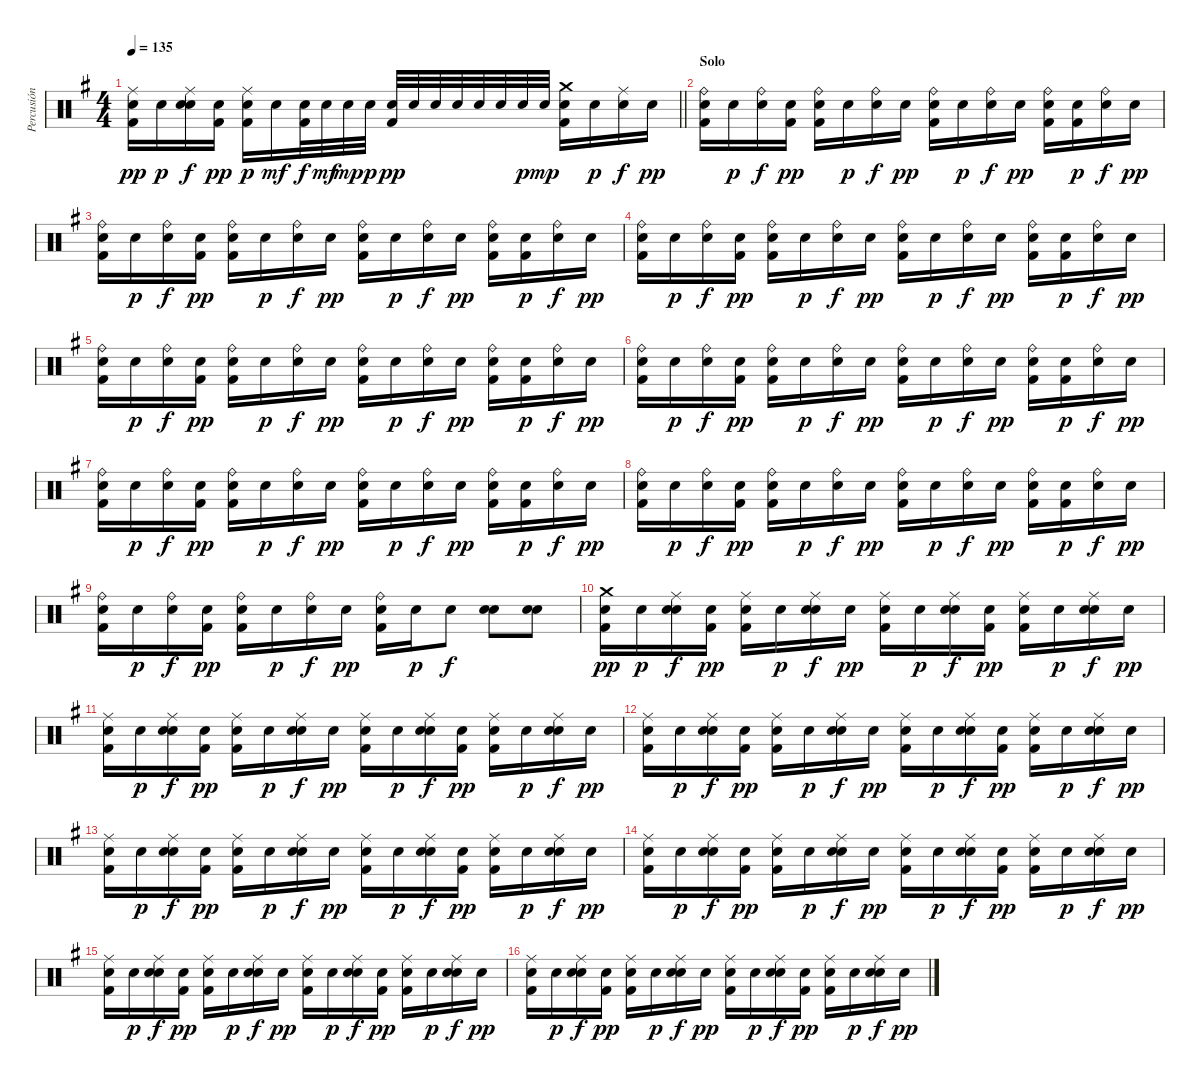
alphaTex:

\track ("Percusión" "Percusión") {instrument percussion}
\staff {score}
\articulation defaults
\ts (4 4)
\tempo 135
\clef neutral
\barLineRight lightlight
\ks g
("Ride (middle)" "Snare (hit) 2" "Kick (hit) 2").16{dy pp} "Snare (hit) 2".16{dy p} ("Ride (middle)" "Hand Clap (hit)" "Snare (hit) 2").16{dy f} ("Snare (hit) 2" "Kick (hit) 2").16{dy pp} ("Ride (middle)" "Snare (hit) 2" "Kick (hit) 2").16{dy p} "Snare (hit) 2".16{dy mf} ("Snare (hit) 2" "Kick (hit) 2").32{dy f} "Snare (hit) 2".32{dy mf} "Snare (hit) 2".32{dy mp} "Snare (hit) 2".32{dy p} ("Snare (hit) 2" "Kick (hit) 2").32{dy pp} "Snare (hit) 2".32 "Snare (hit) 2".32 "Snare (hit) 2".32 "Snare (hit) 2".32 "Snare (hit) 2".32 "Snare (hit) 2".32{dy p} "Snare (hit) 2".32{dy mp} ("Crash medium (hit)" "Snare (hit) 2" "Kick (hit) 2").16 "Snare (hit) 2".16{dy p} ("Ride (middle)" "Snare (hit) 2").16{dy f} "Snare (hit) 2".16{dy pp} |
\section ("" "Solo")
("Ride (bell)" "Snare (hit) 2" "Kick (hit) 2").16 "Snare (hit) 2".16{dy p} ("Ride (bell)" "Snare (hit) 2").16{dy f} ("Snare (hit) 2" "Kick (hit) 2").16{dy pp} ("Ride (bell)" "Snare (hit) 2" "Kick (hit) 2").16 "Snare (hit) 2".16{dy p} ("Ride (bell)" "Snare (hit) 2").16{dy f} "Snare (hit) 2".16{dy pp} ("Ride (bell)" "Snare (hit) 2" "Kick (hit) 2").16 "Snare (hit) 2".16{dy p} ("Ride (bell)" "Snare (hit) 2").16{dy f} "Snare (hit) 2".16{dy pp} ("Ride (bell)" "Snare (hit) 2" "Kick (hit) 2").16 ("Snare (hit) 2" "Kick (hit) 2").16{dy p} ("Ride (bell)" "Snare (hit) 2").16{dy f} "Snare (hit) 2".16{dy pp} |
("Ride (bell)" "Snare (hit) 2" "Kick (hit) 2").16 "Snare (hit) 2".16{dy p} ("Ride (bell)" "Snare (hit) 2").16{dy f} ("Snare (hit) 2" "Kick (hit) 2").16{dy pp} ("Ride (bell)" "Snare (hit) 2" "Kick (hit) 2").16 "Snare (hit) 2".16{dy p} ("Ride (bell)" "Snare (hit) 2").16{dy f} "Snare (hit) 2".16{dy pp} ("Ride (bell)" "Snare (hit) 2" "Kick (hit) 2").16 "Snare (hit) 2".16{dy p} ("Ride (bell)" "Snare (hit) 2").16{dy f} "Snare (hit) 2".16{dy pp} ("Ride (bell)" "Snare (hit) 2" "Kick (hit) 2").16 ("Snare (hit) 2" "Kick (hit) 2").16{dy p} ("Ride (bell)" "Snare (hit) 2").16{dy f} "Snare (hit) 2".16{dy pp} |
("Ride (bell)" "Snare (hit) 2" "Kick (hit) 2").16 "Snare (hit) 2".16{dy p} ("Ride (bell)" "Snare (hit) 2").16{dy f} ("Snare (hit) 2" "Kick (hit) 2").16{dy pp} ("Ride (bell)" "Snare (hit) 2" "Kick (hit) 2").16 "Snare (hit) 2".16{dy p} ("Ride (bell)" "Snare (hit) 2").16{dy f} "Snare (hit) 2".16{dy pp} ("Ride (bell)" "Snare (hit) 2" "Kick (hit) 2").16 "Snare (hit) 2".16{dy p} ("Ride (bell)" "Snare (hit) 2").16{dy f} "Snare (hit) 2".16{dy pp} ("Ride (bell)" "Snare (hit) 2" "Kick (hit) 2").16 ("Snare (hit) 2" "Kick (hit) 2").16{dy p} ("Ride (bell)" "Snare (hit) 2").16{dy f} "Snare (hit) 2".16{dy pp} |
("Ride (bell)" "Snare (hit) 2" "Kick (hit) 2").16 "Snare (hit) 2".16{dy p} ("Ride (bell)" "Snare (hit) 2").16{dy f} ("Snare (hit) 2" "Kick (hit) 2").16{dy pp} ("Ride (bell)" "Snare (hit) 2" "Kick (hit) 2").16 "Snare (hit) 2".16{dy p} ("Ride (bell)" "Snare (hit) 2").16{dy f} "Snare (hit) 2".16{dy pp} ("Ride (bell)" "Snare (hit) 2" "Kick (hit) 2").16 "Snare (hit) 2".16{dy p} ("Ride (bell)" "Snare (hit) 2").16{dy f} "Snare (hit) 2".16{dy pp} ("Ride (bell)" "Snare (hit) 2" "Kick (hit) 2").16 ("Snare (hit) 2" "Kick (hit) 2").16{dy p} ("Ride (bell)" "Snare (hit) 2").16{dy f} "Snare (hit) 2".16{dy pp} |
("Ride (bell)" "Snare (hit) 2" "Kick (hit) 2").16 "Snare (hit) 2".16{dy p} ("Ride (bell)" "Snare (hit) 2").16{dy f} ("Snare (hit) 2" "Kick (hit) 2").16{dy pp} ("Ride (bell)" "Snare (hit) 2" "Kick (hit) 2").16 "Snare (hit) 2".16{dy p} ("Ride (bell)" "Snare (hit) 2").16{dy f} "Snare (hit) 2".16{dy pp} ("Ride (bell)" "Snare (hit) 2" "Kick (hit) 2").16 "Snare (hit) 2".16{dy p} ("Ride (bell)" "Snare (hit) 2").16{dy f} "Snare (hit) 2".16{dy pp} ("Ride (bell)" "Snare (hit) 2" "Kick (hit) 2").16 ("Snare (hit) 2" "Kick (hit) 2").16{dy p} ("Ride (bell)" "Snare (hit) 2").16{dy f} "Snare (hit) 2".16{dy pp} |
("Ride (bell)" "Snare (hit) 2" "Kick (hit) 2").16 "Snare (hit) 2".16{dy p} ("Ride (bell)" "Snare (hit) 2").16{dy f} ("Snare (hit) 2" "Kick (hit) 2").16{dy pp} ("Ride (bell)" "Snare (hit) 2" "Kick (hit) 2").16 "Snare (hit) 2".16{dy p} ("Ride (bell)" "Snare (hit) 2").16{dy f} "Snare (hit) 2".16{dy pp} ("Ride (bell)" "Snare (hit) 2" "Kick (hit) 2").16 "Snare (hit) 2".16{dy p} ("Ride (bell)" "Snare (hit) 2").16{dy f} "Snare (hit) 2".16{dy pp} ("Ride (bell)" "Snare (hit) 2" "Kick (hit) 2").16 ("Snare (hit) 2" "Kick (hit) 2").16{dy p} ("Ride (bell)" "Snare (hit) 2").16{dy f} "Snare (hit) 2".16{dy pp} |
("Ride (bell)" "Snare (hit) 2" "Kick (hit) 2").16 "Snare (hit) 2".16{dy p} ("Ride (bell)" "Snare (hit) 2").16{dy f} ("Snare (hit) 2" "Kick (hit) 2").16{dy pp} ("Ride (bell)" "Snare (hit) 2" "Kick (hit) 2").16 "Snare (hit) 2".16{dy p} ("Ride (bell)" "Snare (hit) 2").16{dy f} "Snare (hit) 2".16{dy pp} ("Ride (bell)" "Snare (hit) 2" "Kick (hit) 2").16 "Snare (hit) 2".16{dy p} ("Ride (bell)" "Snare (hit) 2").16{dy f} "Snare (hit) 2".16{dy pp} ("Ride (bell)" "Snare (hit) 2" "Kick (hit) 2").16 ("Snare (hit) 2" "Kick (hit) 2").16{dy p} ("Ride (bell)" "Snare (hit) 2").16{dy f} "Snare (hit) 2".16{dy pp} |
("Ride (bell)" "Snare (hit) 2" "Kick (hit) 2").16 "Snare (hit) 2".16{dy p} ("Ride (bell)" "Snare (hit) 2").16{dy f} ("Snare (hit) 2" "Kick (hit) 2").16{dy pp} ("Ride (bell)" "Snare (hit) 2" "Kick (hit) 2").16 "Snare (hit) 2".16{dy p} ("Ride (bell)" "Snare (hit) 2").16{dy f} "Snare (hit) 2".16{dy pp} ("Ride (bell)" "Snare (hit) 2" "Kick (hit) 2").16 "Snare (hit) 2".16{dy p} "Snare (hit) 2".8{dy f} ("Snare (hit) 2" "Snare (hit) 2").8{bd 120} ("Snare (hit) 2" "Snare (hit) 2").8{bd 120} |
("Crash medium (hit)" "Snare (hit) 2" "Kick (hit) 2").16{dy pp} "Snare (hit) 2".16{dy p} ("Ride (middle)" "Hand Clap (hit)" "Snare (hit) 2").16{dy f} ("Snare (hit) 2" "Kick (hit) 2").16{dy pp} ("Ride (middle)" "Snare (hit) 2" "Kick (hit) 2").16 "Snare (hit) 2".16{dy p} ("Ride (middle)" "Hand Clap (hit)" "Snare (hit) 2").16{dy f} "Snare (hit) 2".16{dy pp} ("Ride (middle)" "Snare (hit) 2" "Kick (hit) 2").16 "Snare (hit) 2".16{dy p} ("Ride (middle)" "Hand Clap (hit)" "Snare (hit) 2").16{dy f} ("Snare (hit) 2" "Kick (hit) 2").16{dy pp} ("Ride (middle)" "Snare (hit) 2" "Kick (hit) 2").16 "Snare (hit) 2".16{dy p} ("Ride (middle)" "Hand Clap (hit)" "Snare (hit) 2").16{dy f} "Snare (hit) 2".16{dy pp} |
("Ride (middle)" "Snare (hit) 2" "Kick (hit) 2").16 "Snare (hit) 2".16{dy p} ("Ride (middle)" "Hand Clap (hit)" "Snare (hit) 2").16{dy f} ("Snare (hit) 2" "Kick (hit) 2").16{dy pp} ("Ride (middle)" "Snare (hit) 2" "Kick (hit) 2").16 "Snare (hit) 2".16{dy p} ("Ride (middle)" "Hand Clap (hit)" "Snare (hit) 2").16{dy f} "Snare (hit) 2".16{dy pp} ("Ride (middle)" "Snare (hit) 2" "Kick (hit) 2").16 "Snare (hit) 2".16{dy p} ("Ride (middle)" "Hand Clap (hit)" "Snare (hit) 2").16{dy f} ("Snare (hit) 2" "Kick (hit) 2").16{dy pp} ("Ride (middle)" "Snare (hit) 2" "Kick (hit) 2").16 "Snare (hit) 2".16{dy p} ("Ride (middle)" "Hand Clap (hit)" "Snare (hit) 2").16{dy f} "Snare (hit) 2".16{dy pp} |
("Ride (middle)" "Snare (hit) 2" "Kick (hit) 2").16 "Snare (hit) 2".16{dy p} ("Ride (middle)" "Hand Clap (hit)" "Snare (hit) 2").16{dy f} ("Snare (hit) 2" "Kick (hit) 2").16{dy pp} ("Ride (middle)" "Snare (hit) 2" "Kick (hit) 2").16 "Snare (hit) 2".16{dy p} ("Ride (middle)" "Hand Clap (hit)" "Snare (hit) 2").16{dy f} "Snare (hit) 2".16{dy pp} ("Ride (middle)" "Snare (hit) 2" "Kick (hit) 2").16 "Snare (hit) 2".16{dy p} ("Ride (middle)" "Hand Clap (hit)" "Snare (hit) 2").16{dy f} ("Snare (hit) 2" "Kick (hit) 2").16{dy pp} ("Ride (middle)" "Snare (hit) 2" "Kick (hit) 2").16 "Snare (hit) 2".16{dy p} ("Ride (middle)" "Hand Clap (hit)" "Snare (hit) 2").16{dy f} "Snare (hit) 2".16{dy pp} |
("Ride (middle)" "Snare (hit) 2" "Kick (hit) 2").16 "Snare (hit) 2".16{dy p} ("Ride (middle)" "Hand Clap (hit)" "Snare (hit) 2").16{dy f} ("Snare (hit) 2" "Kick (hit) 2").16{dy pp} ("Ride (middle)" "Snare (hit) 2" "Kick (hit) 2").16 "Snare (hit) 2".16{dy p} ("Ride (middle)" "Hand Clap (hit)" "Snare (hit) 2").16{dy f} "Snare (hit) 2".16{dy pp} ("Ride (middle)" "Snare (hit) 2" "Kick (hit) 2").16 "Snare (hit) 2".16{dy p} ("Ride (middle)" "Hand Clap (hit)" "Snare (hit) 2").16{dy f} ("Snare (hit) 2" "Kick (hit) 2").16{dy pp} ("Ride (middle)" "Snare (hit) 2" "Kick (hit) 2").16 "Snare (hit) 2".16{dy p} ("Ride (middle)" "Hand Clap (hit)" "Snare (hit) 2").16{dy f} "Snare (hit) 2".16{dy pp} |
("Ride (middle)" "Snare (hit) 2" "Kick (hit) 2").16 "Snare (hit) 2".16{dy p} ("Ride (middle)" "Hand Clap (hit)" "Snare (hit) 2").16{dy f} ("Snare (hit) 2" "Kick (hit) 2").16{dy pp} ("Ride (middle)" "Snare (hit) 2" "Kick (hit) 2").16 "Snare (hit) 2".16{dy p} ("Ride (middle)" "Hand Clap (hit)" "Snare (hit) 2").16{dy f} "Snare (hit) 2".16{dy pp} ("Ride (middle)" "Snare (hit) 2" "Kick (hit) 2").16 "Snare (hit) 2".16{dy p} ("Ride (middle)" "Hand Clap (hit)" "Snare (hit) 2").16{dy f} ("Snare (hit) 2" "Kick (hit) 2").16{dy pp} ("Ride (middle)" "Snare (hit) 2" "Kick (hit) 2").16 "Snare (hit) 2".16{dy p} ("Ride (middle)" "Hand Clap (hit)" "Snare (hit) 2").16{dy f} "Snare (hit) 2".16{dy pp} |
("Ride (middle)" "Snare (hit) 2" "Kick (hit) 2").16 "Snare (hit) 2".16{dy p} ("Ride (middle)" "Hand Clap (hit)" "Snare (hit) 2").16{dy f} ("Snare (hit) 2" "Kick (hit) 2").16{dy pp} ("Ride (middle)" "Snare (hit) 2" "Kick (hit) 2").16 "Snare (hit) 2".16{dy p} ("Ride (middle)" "Hand Clap (hit)" "Snare (hit) 2").16{dy f} "Snare (hit) 2".16{dy pp} ("Ride (middle)" "Snare (hit) 2" "Kick (hit) 2").16 "Snare (hit) 2".16{dy p} ("Ride (middle)" "Hand Clap (hit)" "Snare (hit) 2").16{dy f} ("Snare (hit) 2" "Kick (hit) 2").16{dy pp} ("Ride (middle)" "Snare (hit) 2" "Kick (hit) 2").16 "Snare (hit) 2".16{dy p} ("Ride (middle)" "Hand Clap (hit)" "Snare (hit) 2").16{dy f} "Snare (hit) 2".16{dy pp} |
("Ride (middle)" "Snare (hit) 2" "Kick (hit) 2").16 "Snare (hit) 2".16{dy p} ("Ride (middle)" "Hand Clap (hit)" "Snare (hit) 2").16{dy f} ("Snare (hit) 2" "Kick (hit) 2").16{dy pp} ("Ride (middle)" "Snare (hit) 2" "Kick (hit) 2").16 "Snare (hit) 2".16{dy p} ("Ride (middle)" "Hand Clap (hit)" "Snare (hit) 2").16{dy f} "Snare (hit) 2".16{dy pp} ("Ride (middle)" "Snare (hit) 2" "Kick (hit) 2").16 "Snare (hit) 2".16{dy p} ("Ride (middle)" "Hand Clap (hit)" "Snare (hit) 2").16{dy f} ("Snare (hit) 2" "Kick (hit) 2").16{dy pp} ("Ride (middle)" "Snare (hit) 2" "Kick (hit) 2").16 "Snare (hit) 2".16{dy p} ("Ride (middle)" "Hand Clap (hit)" "Snare (hit) 2").16{dy f} "Snare (hit) 2".16{dy pp}
